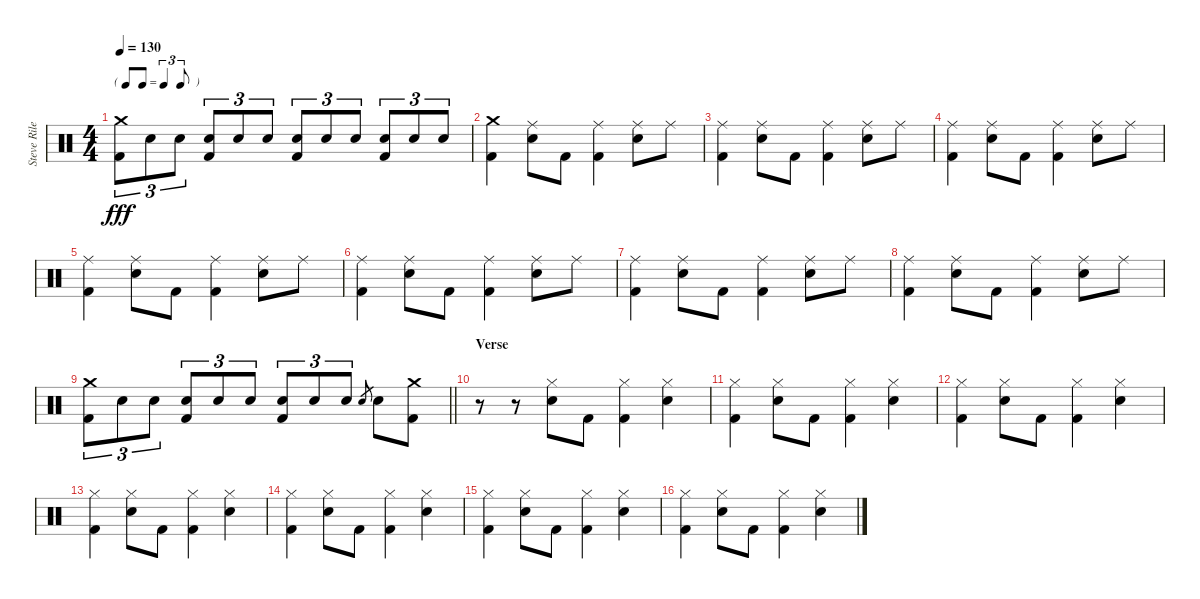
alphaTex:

\track ("Steve Riley - Drums" "Steve Rile") {instrument percussion}
\staff {score}
\articulation defaults
\ts (4 4)
\tf triplet8th
\tempo 130
\clef neutral
\ks c
("Crash medium (hit)" "Kick (hit) 2").8{tu (3 2) dy fff} "Electric Snare (hit)".8{tu (3 2)} "Electric Snare (hit)".8{tu (3 2)} ("Electric Snare (hit)" "Kick (hit) 2").8{tu (3 2)} "Electric Snare (hit)".8{tu (3 2)} "Electric Snare (hit)".8{tu (3 2)} ("Electric Snare (hit)" "Kick (hit) 2").8{tu (3 2)} "Electric Snare (hit)".8{tu (3 2)} "Electric Snare (hit)".8{tu (3 2)} ("Electric Snare (hit)" "Kick (hit) 2").8{tu (3 2)} "Electric Snare (hit)".8{tu (3 2)} "Electric Snare (hit)".8{tu (3 2)} |
("Crash medium (hit)" "Kick (hit) 2").4 ("Ride (middle)" "Electric Snare (hit)").8 "Kick (hit) 2".8 ("Ride (middle)" "Kick (hit) 2").4 ("Ride (middle)" "Electric Snare (hit)").8 "Ride (middle)".8 |
("Ride (middle)" "Kick (hit) 2").4 ("Ride (middle)" "Electric Snare (hit)").8 "Kick (hit) 2".8 ("Ride (middle)" "Kick (hit) 2").4 ("Ride (middle)" "Electric Snare (hit)").8 "Ride (middle)".8 |
("Ride (middle)" "Kick (hit) 2").4 ("Ride (middle)" "Electric Snare (hit)").8 "Kick (hit) 2".8 ("Ride (middle)" "Kick (hit) 2").4 ("Ride (middle)" "Electric Snare (hit)").8 "Ride (middle)".8 |
("Ride (middle)" "Kick (hit) 2").4 ("Ride (middle)" "Electric Snare (hit)").8 "Kick (hit) 2".8 ("Ride (middle)" "Kick (hit) 2").4 ("Ride (middle)" "Electric Snare (hit)").8 "Ride (middle)".8 |
("Ride (middle)" "Kick (hit) 2").4 ("Ride (middle)" "Electric Snare (hit)").8 "Kick (hit) 2".8 ("Ride (middle)" "Kick (hit) 2").4 ("Ride (middle)" "Electric Snare (hit)").8 "Ride (middle)".8 |
("Ride (middle)" "Kick (hit) 2").4 ("Ride (middle)" "Electric Snare (hit)").8 "Kick (hit) 2".8 ("Ride (middle)" "Kick (hit) 2").4 ("Ride (middle)" "Electric Snare (hit)").8 "Ride (middle)".8 |
("Ride (middle)" "Kick (hit) 2").4 ("Ride (middle)" "Electric Snare (hit)").8 "Kick (hit) 2".8 ("Ride (middle)" "Kick (hit) 2").4 ("Ride (middle)" "Electric Snare (hit)").8 "Ride (middle)".8 |
\barLineRight lightlight
("Crash medium (hit)" "Kick (hit) 2").8{tu (3 2)} "Electric Snare (hit)".8{tu (3 2)} "Electric Snare (hit)".8{tu (3 2)} ("Electric Snare (hit)" "Kick (hit) 2").8{tu (3 2)} "Electric Snare (hit)".8{tu (3 2)} "Electric Snare (hit)".8{tu (3 2)} ("Electric Snare (hit)" "Kick (hit) 2").8{tu (3 2)} "Electric Snare (hit)".8{tu (3 2)} "Electric Snare (hit)".8{tu (3 2)} "Electric Snare (hit)".8{gr} "Electric Snare (hit)".8 ("Crash medium (hit)" "Kick (hit) 2").8 |
\section ("" "Verse")
r.8 r.8 ("Hi-Hat (closed)" "Electric Snare (hit)").8 "Kick (hit) 2".8 ("Hi-Hat (closed)" "Kick (hit) 2").4 ("Hi-Hat (closed)" "Electric Snare (hit)").4 |
("Hi-Hat (closed)" "Kick (hit) 2").4 ("Hi-Hat (closed)" "Electric Snare (hit)").8 "Kick (hit) 2".8 ("Hi-Hat (closed)" "Kick (hit) 2").4 ("Hi-Hat (closed)" "Electric Snare (hit)").4 |
("Hi-Hat (closed)" "Kick (hit) 2").4 ("Hi-Hat (closed)" "Electric Snare (hit)").8 "Kick (hit) 2".8 ("Hi-Hat (closed)" "Kick (hit) 2").4 ("Hi-Hat (closed)" "Electric Snare (hit)").4 |
("Hi-Hat (closed)" "Kick (hit) 2").4 ("Hi-Hat (closed)" "Electric Snare (hit)").8 "Kick (hit) 2".8 ("Hi-Hat (closed)" "Kick (hit) 2").4 ("Hi-Hat (closed)" "Electric Snare (hit)").4 |
("Hi-Hat (closed)" "Kick (hit) 2").4 ("Hi-Hat (closed)" "Electric Snare (hit)").8 "Kick (hit) 2".8 ("Hi-Hat (closed)" "Kick (hit) 2").4 ("Hi-Hat (closed)" "Electric Snare (hit)").4 |
("Hi-Hat (closed)" "Kick (hit) 2").4 ("Hi-Hat (closed)" "Electric Snare (hit)").8 "Kick (hit) 2".8 ("Hi-Hat (closed)" "Kick (hit) 2").4 ("Hi-Hat (closed)" "Electric Snare (hit)").4 |
("Hi-Hat (closed)" "Kick (hit) 2").4 ("Hi-Hat (closed)" "Electric Snare (hit)").8 "Kick (hit) 2".8 ("Hi-Hat (closed)" "Kick (hit) 2").4 ("Hi-Hat (closed)" "Electric Snare (hit)").4
